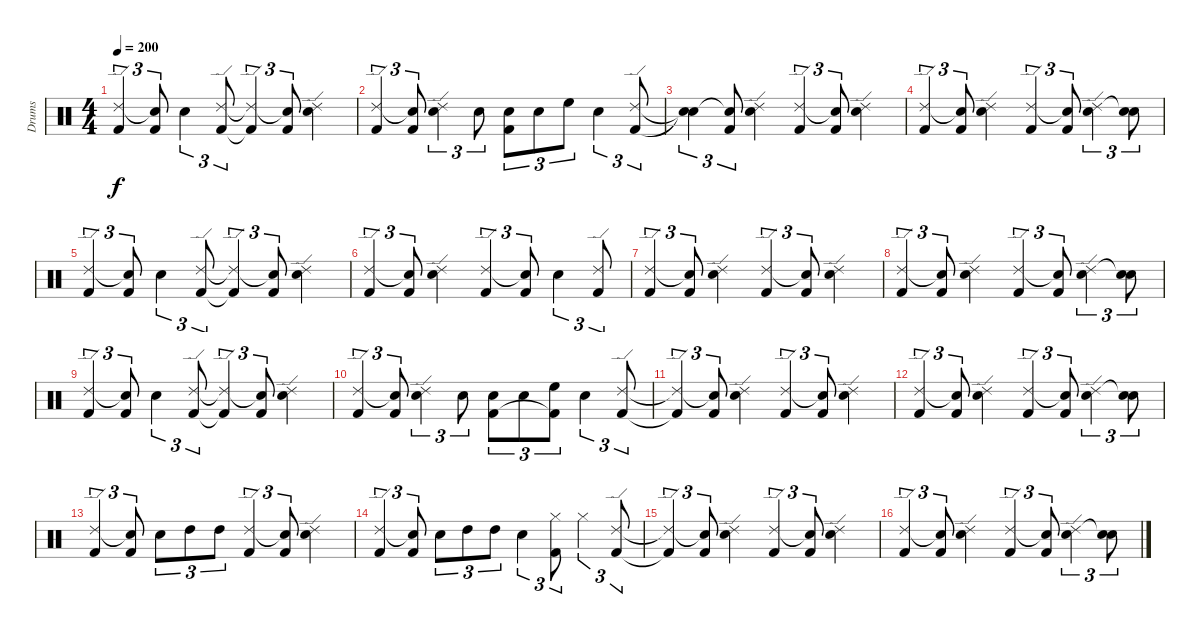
\track ("Drums" "Drums") {instrument percussion}
\staff {score}
\articulation defaults
\ts (4 4)
\tempo 200
\clef neutral
\ks c
("Ride (edge) 2" "Kick (hit) 2").4{tu (3 2) dy f} ("Snare (hit)"{t} "Kick (hit) 2").8{tu (3 2)} "Snare (hit) 2".4{tu (3 2)} ("Ride (edge) 2" "Kick (hit) 2").8{tu (3 2)} ("Ride (edge) 2"{t} "Kick (hit) 2"{t}).4{tu (3 2)} ("Snare (hit)"{t} "Kick (hit) 2").8{tu (3 2)} ("Ride (edge) 2" "Snare (hit) 2").4 |
("Ride (edge) 2" "Kick (hit) 2").4{tu (3 2)} ("Snare (hit)"{t} "Kick (hit) 2").8{tu (3 2)} ("Ride (edge) 2" "Snare (hit) 2").4{tu (3 2)} "Snare (hit) 2".8{tu (3 2)} ("Snare (hit) 2" "Kick (hit) 2").8{tu (3 2)} "Snare (hit) 2".8{tu (3 2)} "High Floor Tom (hit)".8{tu (3 2)} "Snare (hit) 2".4{tu (3 2)} ("Ride (edge) 2" "Kick (hit) 2").8{tu (3 2)} |
("Snare (hit)"{t} "Snare (hit)"{t}).4{tu (3 2)} ("Snare (hit)"{t} "Kick (hit) 2").8{tu (3 2)} ("Ride (edge) 2" "Snare (hit) 2").4 ("Ride (edge) 2" "Kick (hit) 2").4{tu (3 2)} ("Snare (hit)"{t} "Kick (hit) 2").8{tu (3 2)} ("Ride (edge) 2" "Snare (hit) 2").4 |
("Ride (edge) 2" "Kick (hit) 2").4{tu (3 2)} ("Snare (hit)"{t} "Kick (hit) 2").8{tu (3 2)} ("Ride (edge) 2" "Snare (hit) 2").4 ("Ride (edge) 2" "Kick (hit) 2").4{tu (3 2)} ("Snare (hit)"{t} "Kick (hit) 2").8{tu (3 2)} ("Ride (edge) 2" "Snare (hit) 2").4{tu (3 2)} ("Snare (hit)"{t} "Snare (hit) 2").8{tu (3 2)} |
("Ride (edge) 2" "Kick (hit) 2").4{tu (3 2)} ("Snare (hit)"{t} "Kick (hit) 2").8{tu (3 2)} "Snare (hit) 2".4{tu (3 2)} ("Ride (edge) 2" "Kick (hit) 2").8{tu (3 2)} ("Ride (edge) 2"{t} "Kick (hit) 2"{t}).4{tu (3 2)} ("Snare (hit)"{t} "Kick (hit) 2").8{tu (3 2)} ("Ride (edge) 2" "Snare (hit) 2").4 |
("Ride (edge) 2" "Kick (hit) 2").4{tu (3 2)} ("Snare (hit)"{t} "Kick (hit) 2").8{tu (3 2)} ("Ride (edge) 2" "Snare (hit) 2").4 ("Ride (edge) 2" "Kick (hit) 2").4{tu (3 2)} ("Snare (hit)"{t} "Kick (hit) 2").8{tu (3 2)} "Snare (hit) 2".4{tu (3 2)} ("Ride (edge) 2" "Kick (hit) 2").8{tu (3 2)} |
("Ride (edge) 2" "Kick (hit) 2").4{tu (3 2)} ("Snare (hit)"{t} "Kick (hit) 2").8{tu (3 2)} ("Ride (edge) 2" "Snare (hit) 2").4 ("Ride (edge) 2" "Kick (hit) 2").4{tu (3 2)} ("Snare (hit)"{t} "Kick (hit) 2").8{tu (3 2)} ("Ride (edge) 2" "Snare (hit) 2").4 |
("Ride (edge) 2" "Kick (hit) 2").4{tu (3 2)} ("Snare (hit)"{t} "Kick (hit) 2").8{tu (3 2)} ("Ride (edge) 2" "Snare (hit) 2").4 ("Ride (edge) 2" "Kick (hit) 2").4{tu (3 2)} ("Snare (hit)"{t} "Kick (hit) 2").8{tu (3 2)} ("Ride (edge) 2" "Snare (hit) 2").4{tu (3 2)} ("Snare (hit)"{t} "Snare (hit) 2").8{tu (3 2)} |
("Ride (edge) 2" "Kick (hit) 2").4{tu (3 2)} ("Snare (hit)"{t} "Kick (hit) 2").8{tu (3 2)} "Snare (hit) 2".4{tu (3 2)} ("Ride (edge) 2" "Kick (hit) 2").8{tu (3 2)} ("Ride (edge) 2"{t} "Kick (hit) 2"{t}).4{tu (3 2)} ("Snare (hit)"{t} "Kick (hit) 2").8{tu (3 2)} ("Ride (edge) 2" "Snare (hit) 2").4 |
("Ride (edge) 2" "Kick (hit) 2").4{tu (3 2)} ("Snare (hit)"{t} "Kick (hit) 2").8{tu (3 2)} ("Ride (edge) 2" "Snare (hit) 2").4{tu (3 2)} "Snare (hit) 2".8{tu (3 2)} ("Snare (hit) 2" "Kick (hit) 2").8{tu (3 2)} "Snare (hit) 2".8{tu (3 2)} ("High Floor Tom (hit)" "Kick (hit) 2"{t}).8{tu (3 2)} "Snare (hit) 2".4{tu (3 2)} ("Ride (edge) 2" "Kick (hit) 2").8{tu (3 2)} |
("Ride (edge) 2"{t} "Kick (hit) 2"{t}).4{tu (3 2)} ("Snare (hit)"{t} "Kick (hit) 2").8{tu (3 2)} ("Ride (edge) 2" "Snare (hit) 2").4 ("Ride (edge) 2" "Kick (hit) 2").4{tu (3 2)} ("Snare (hit)"{t} "Kick (hit) 2").8{tu (3 2)} ("Ride (edge) 2" "Snare (hit) 2").4 |
("Ride (edge) 2" "Kick (hit) 2").4{tu (3 2)} ("Snare (hit)"{t} "Kick (hit) 2").8{tu (3 2)} ("Ride (edge) 2" "Snare (hit) 2").4 ("Ride (edge) 2" "Kick (hit) 2").4{tu (3 2)} ("Snare (hit)"{t} "Kick (hit) 2").8{tu (3 2)} ("Ride (edge) 2" "Snare (hit) 2").4{tu (3 2)} ("Snare (hit)"{t} "Snare (hit) 2").8{tu (3 2)} |
("Ride (edge) 2" "Kick (hit) 2").4{tu (3 2)} ("Snare (hit)"{t} "Kick (hit) 2").8{tu (3 2)} "Snare (hit) 2".8{tu (3 2)} "High Tom (hit)".8{tu (3 2)} "High Tom (hit)".8{tu (3 2)} ("Ride (edge) 2" "Kick (hit) 2").4{tu (3 2)} ("Snare (hit)"{t} "Kick (hit) 2").8{tu (3 2)} ("Ride (edge) 2" "Snare (hit) 2").4 |
("Ride (edge) 2" "Kick (hit) 2").4{tu (3 2)} ("Snare (hit)"{t} "Kick (hit) 2").8{tu (3 2)} "Snare (hit) 2".8{tu (3 2)} "High Tom (hit)".8{tu (3 2)} "High Tom (hit)".8{tu (3 2)} "Snare (hit) 2".4{tu (3 2)} ("Hi-Hat (closed)" "Kick (hit) 2").8{tu (3 2)} "Hi-Hat (closed)".4{tu (3 2)} ("Ride (edge) 2" "Kick (hit) 2").8{tu (3 2)} |
("Ride (edge) 2"{t} "Kick (hit) 2"{t}).4{tu (3 2)} ("Snare (hit)"{t} "Kick (hit) 2").8{tu (3 2)} ("Ride (edge) 2" "Snare (hit) 2").4 ("Ride (edge) 2" "Kick (hit) 2").4{tu (3 2)} ("Snare (hit)"{t} "Kick (hit) 2").8{tu (3 2)} ("Ride (edge) 2" "Snare (hit) 2").4 |
("Ride (edge) 2" "Kick (hit) 2").4{tu (3 2)} ("Snare (hit)"{t} "Kick (hit) 2").8{tu (3 2)} ("Ride (edge) 2" "Snare (hit) 2").4 ("Ride (edge) 2" "Kick (hit) 2").4{tu (3 2)} ("Snare (hit)"{t} "Kick (hit) 2").8{tu (3 2)} ("Ride (edge) 2" "Snare (hit) 2").4{tu (3 2)} ("Snare (hit)"{t} "Snare (hit) 2").8{tu (3 2)}
